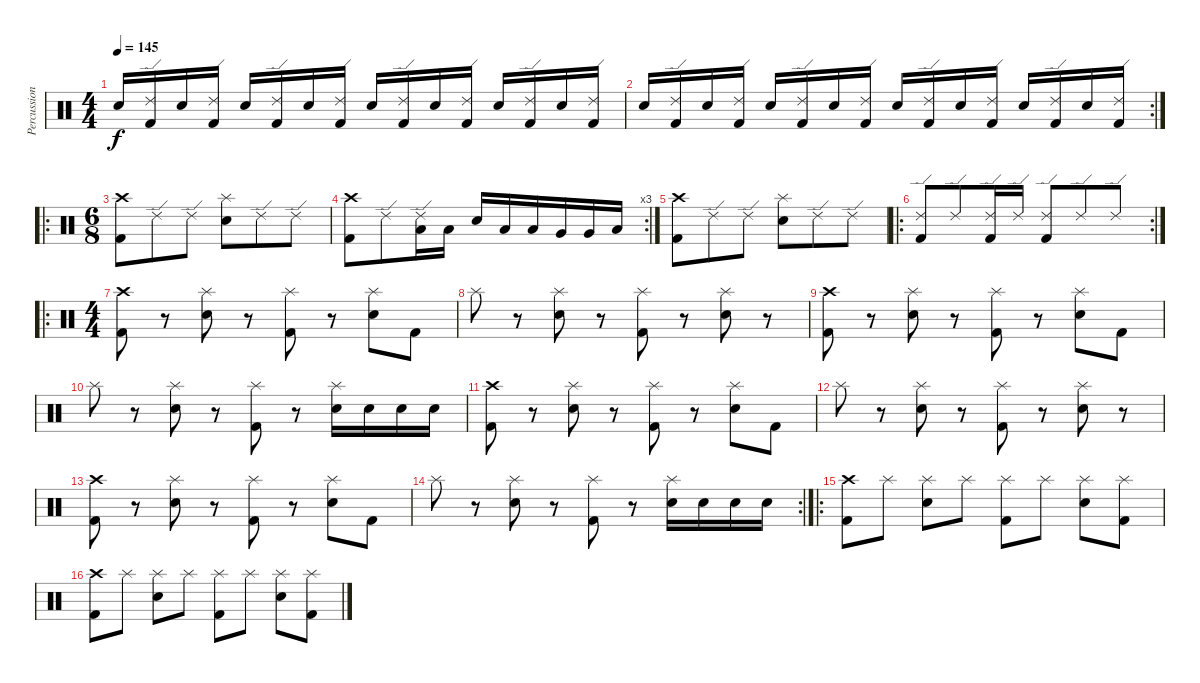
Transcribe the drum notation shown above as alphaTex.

\track ("Percussion" "Percussion") {instrument percussion}
\staff {score}
\articulation defaults
\ts (4 4)
\tempo 145
\clef neutral
\ks c "Electric Snare (hit)".16{dy f}
("Ride (edge) 2" "Kick (hit) 2").16 "Electric Snare (hit)".16 ("Ride (edge) 2" "Kick (hit) 2").16 "Electric Snare (hit)".16 ("Ride (edge) 2" "Kick (hit) 2").16 "Electric Snare (hit)".16 ("Ride (edge) 2" "Kick (hit) 2").16 "Electric Snare (hit)".16 ("Ride (edge) 2" "Kick (hit) 2").16 "Electric Snare (hit)".16 ("Ride (edge) 2" "Kick (hit) 2").16 "Electric Snare (hit)".16 ("Ride (edge) 2" "Kick (hit) 2").16 "Electric Snare (hit)".16 ("Ride (edge) 2" "Kick (hit) 2").16 |
\rc 2 "Electric Snare (hit)".16
("Ride (edge) 2" "Kick (hit) 2").16 "Electric Snare (hit)".16 ("Ride (edge) 2" "Kick (hit) 2").16 "Electric Snare (hit)".16 ("Ride (edge) 2" "Kick (hit) 2").16 "Electric Snare (hit)".16 ("Ride (edge) 2" "Kick (hit) 2").16 "Electric Snare (hit)".16 ("Ride (edge) 2" "Kick (hit) 2").16 "Electric Snare (hit)".16 ("Ride (edge) 2" "Kick (hit) 2").16 "Electric Snare (hit)".16 ("Ride (edge) 2" "Kick (hit) 2").16 "Electric Snare (hit)".16 ("Ride (edge) 2" "Kick (hit) 2").16 |
\ro
\ts (6 8)
("Crash high (hit)" "Kick (hit) 2").8 "Ride (edge) 2".8 "Ride (edge) 2".8 ("Splash (hit)" "Electric Snare (hit)").8 "Ride (edge) 2".8 "Ride (edge) 2".8 |
\rc 3
("Crash high (hit)" "Kick (hit) 2").8 "Ride (edge) 2".8 ("Ride (edge) 2" "Low Tom (hit)").16 "Low Tom (hit)".16 "Electric Snare (hit)".16 "Low Tom (hit)".16 "Low Tom (hit)".16 "Very Low Tom (hit)".16 "Very Low Tom (hit)".16 "Low Floor Tom (hit)".16 |
("Crash high (hit)" "Kick (hit) 2").8 "Ride (edge) 2".8 "Ride (edge) 2".8 ("Splash (hit)" "Electric Snare (hit)").8 "Ride (edge) 2".8 "Ride (edge) 2".8 |
\ro
\rc 2
("Ride (edge) 2" "Kick (hit) 2").8 "Ride (edge) 2".8 ("Ride (edge) 2" "Kick (hit) 2").16 "Ride (edge) 2".16 ("Ride (edge) 2" "Kick (hit) 2").8 "Ride (edge) 2".8 "Ride (edge) 2".8 |
\ro
\ts (4 4)
("Crash high (hit)" "Kick (hit) 2").8 r.8 ("Splash (hit)" "Electric Snare (hit)").8 r.8 ("Splash (hit)" "Kick (hit) 2").8 r.8 ("Splash (hit)" "Electric Snare (hit)").8 "Kick (hit) 2".8 |
"Splash (hit)".8 r.8 ("Splash (hit)" "Electric Snare (hit)").8 r.8 ("Splash (hit)" "Kick (hit) 2").8 r.8 ("Splash (hit)" "Electric Snare (hit)").8 r.8 |
("Crash high (hit)" "Kick (hit) 2").8 r.8 ("Splash (hit)" "Electric Snare (hit)").8 r.8 ("Splash (hit)" "Kick (hit) 2").8 r.8 ("Splash (hit)" "Electric Snare (hit)").8 "Kick (hit) 2".8 |
"Splash (hit)".8 r.8 ("Splash (hit)" "Electric Snare (hit)").8 r.8 ("Splash (hit)" "Kick (hit) 2").8 r.8 ("Splash (hit)" "Electric Snare (hit)").16 "Electric Snare (hit)".16 "Electric Snare (hit)".16 "Electric Snare (hit)".16 |
("Crash high (hit)" "Kick (hit) 2").8 r.8 ("Splash (hit)" "Electric Snare (hit)").8 r.8 ("Splash (hit)" "Kick (hit) 2").8 r.8 ("Splash (hit)" "Electric Snare (hit)").8 "Kick (hit) 2".8 |
"Splash (hit)".8 r.8 ("Splash (hit)" "Electric Snare (hit)").8 r.8 ("Splash (hit)" "Kick (hit) 2").8 r.8 ("Splash (hit)" "Electric Snare (hit)").8 r.8 |
("Crash high (hit)" "Kick (hit) 2").8 r.8 ("Splash (hit)" "Electric Snare (hit)").8 r.8 ("Splash (hit)" "Kick (hit) 2").8 r.8 ("Splash (hit)" "Electric Snare (hit)").8 "Kick (hit) 2".8 |
\rc 2 "Splash (hit)".8
r.8 ("Splash (hit)" "Electric Snare (hit)").8 r.8 ("Splash (hit)" "Kick (hit) 2").8 r.8 ("Splash (hit)" "Electric Snare (hit)").16 "Electric Snare (hit)".16 "Electric Snare (hit)".16 "Electric Snare (hit)".16 |
\ro
("Crash high (hit)" "Kick (hit) 2").8 "Splash (hit)".8 ("Splash (hit)" "Electric Snare (hit)").8 "Splash (hit)".8 ("Splash (hit)" "Kick (hit) 2").8 "Splash (hit)".8 ("Splash (hit)" "Electric Snare (hit)").8 ("Splash (hit)" "Kick (hit) 2").8 |
("Crash high (hit)" "Kick (hit) 2").8 "Splash (hit)".8 ("Splash (hit)" "Electric Snare (hit)").8 "Splash (hit)".8 ("Splash (hit)" "Kick (hit) 2").8 "Splash (hit)".8 ("Splash (hit)" "Electric Snare (hit)").8 ("Splash (hit)" "Kick (hit) 2").8
